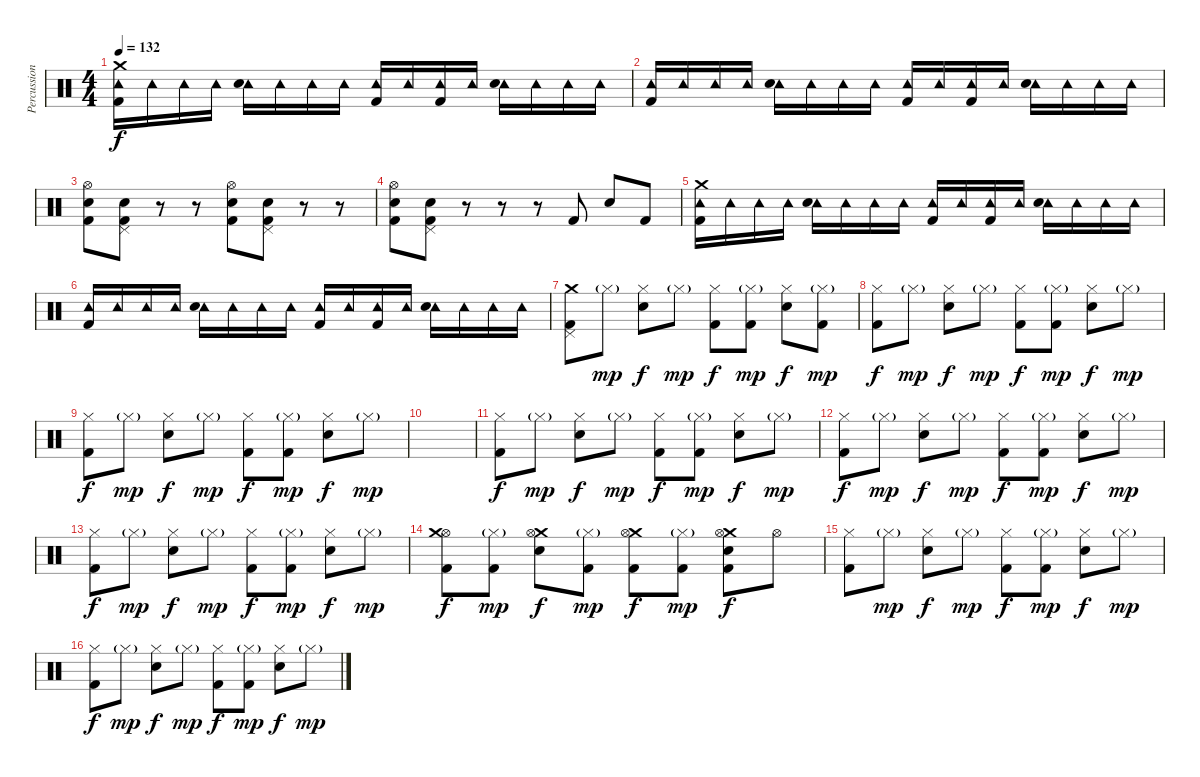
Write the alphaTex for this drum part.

\track ("Percussion" "Percussion") {instrument percussion}
\staff {score}
\articulation defaults
\ts (4 4)
\tempo 132
\clef neutral
\ks c
("Crash medium (hit)" "Tambourine (hit)" "Kick (hit) 2").16{dy f} "Tambourine (hit)".16 "Tambourine (hit)".16 "Tambourine (hit)".16 ("Tambourine (hit)" "Snare (hit) 2").16 "Tambourine (hit)".16 "Tambourine (hit)".16 "Tambourine (hit)".16 ("Tambourine (hit)" "Kick (hit) 2").16 "Tambourine (hit)".16 ("Tambourine (hit)" "Kick (hit) 2").16 "Tambourine (hit)".16 ("Tambourine (hit)" "Snare (hit) 2").16 "Tambourine (hit)".16 "Tambourine (hit)".16 "Tambourine (hit)".16 |
("Tambourine (hit)" "Kick (hit) 2").16 "Tambourine (hit)".16 "Tambourine (hit)".16 "Tambourine (hit)".16 ("Tambourine (hit)" "Snare (hit) 2").16 "Tambourine (hit)".16 "Tambourine (hit)".16 "Tambourine (hit)".16 ("Tambourine (hit)" "Kick (hit) 2").16 "Tambourine (hit)".16 ("Tambourine (hit)" "Kick (hit) 2").16 "Tambourine (hit)".16 ("Tambourine (hit)" "Snare (hit) 2").16 "Tambourine (hit)".16 "Tambourine (hit)".16 "Tambourine (hit)".16 |
("Hi-Hat (open)" "Snare (hit) 2" "Kick (hit) 2").8 ("Pedal Hi-Hat (hit)" "Snare (hit) 2" "Kick (hit) 2").8 r.8 r.8 ("Hi-Hat (open)" "Snare (hit) 2" "Kick (hit) 2").8 ("Pedal Hi-Hat (hit)" "Snare (hit) 2" "Kick (hit) 2").8 r.8 r.8 |
("Hi-Hat (open)" "Snare (hit) 2" "Kick (hit) 2").8 ("Pedal Hi-Hat (hit)" "Snare (hit) 2" "Kick (hit) 2").8 r.8 r.8 r.8 "Kick (hit) 2".8 "Snare (hit) 2".8 "Kick (hit) 2".8 |
("Crash medium (hit)" "Tambourine (hit)" "Kick (hit) 2").16 "Tambourine (hit)".16 "Tambourine (hit)".16 "Tambourine (hit)".16 ("Tambourine (hit)" "Snare (hit) 2").16 "Tambourine (hit)".16 "Tambourine (hit)".16 "Tambourine (hit)".16 ("Tambourine (hit)" "Kick (hit) 2").16 "Tambourine (hit)".16 ("Tambourine (hit)" "Kick (hit) 2").16 "Tambourine (hit)".16 ("Tambourine (hit)" "Snare (hit) 2").16 "Tambourine (hit)".16 "Tambourine (hit)".16 "Tambourine (hit)".16 |
("Tambourine (hit)" "Kick (hit) 2").16 "Tambourine (hit)".16 "Tambourine (hit)".16 "Tambourine (hit)".16 ("Tambourine (hit)" "Snare (hit) 2").16 "Tambourine (hit)".16 "Tambourine (hit)".16 "Tambourine (hit)".16 ("Tambourine (hit)" "Kick (hit) 2").16 "Tambourine (hit)".16 ("Tambourine (hit)" "Kick (hit) 2").16 "Tambourine (hit)".16 ("Tambourine (hit)" "Snare (hit) 2").16 "Tambourine (hit)".16 "Tambourine (hit)".16 "Tambourine (hit)".16 |
("Crash medium (hit)" "Pedal Hi-Hat (hit)" "Kick (hit) 2").8 "Hi-Hat (closed)"{g}.8{dy mp} ("Hi-Hat (closed)" "Snare (hit) 2").8{dy f} "Hi-Hat (closed)"{g}.8{dy mp} ("Hi-Hat (closed)" "Kick (hit) 2").8{dy f} ("Hi-Hat (closed)"{g} "Kick (hit) 2").8{dy mp} ("Hi-Hat (closed)" "Snare (hit) 2").8{dy f} ("Hi-Hat (closed)"{g} "Kick (hit) 2").8{dy mp} |
("Hi-Hat (closed)" "Kick (hit) 2").8{dy f} "Hi-Hat (closed)"{g}.8{dy mp} ("Hi-Hat (closed)" "Snare (hit) 2").8{dy f} "Hi-Hat (closed)"{g}.8{dy mp} ("Hi-Hat (closed)" "Kick (hit) 2").8{dy f} ("Hi-Hat (closed)"{g} "Kick (hit) 2").8{dy mp} ("Hi-Hat (closed)" "Snare (hit) 2").8{dy f} "Hi-Hat (closed)"{g}.8{dy mp} |
("Hi-Hat (closed)" "Kick (hit) 2").8{dy f} "Hi-Hat (closed)"{g}.8{dy mp} ("Hi-Hat (closed)" "Snare (hit) 2").8{dy f} "Hi-Hat (closed)"{g}.8{dy mp} ("Hi-Hat (closed)" "Kick (hit) 2").8{dy f} ("Hi-Hat (closed)"{g} "Kick (hit) 2").8{dy mp} ("Hi-Hat (closed)" "Snare (hit) 2").8{dy f} "Hi-Hat (closed)"{g}.8{dy mp} |
|
("Hi-Hat (closed)" "Kick (hit) 2").8{dy f} "Hi-Hat (closed)"{g}.8{dy mp} ("Hi-Hat (closed)" "Snare (hit) 2").8{dy f} "Hi-Hat (closed)"{g}.8{dy mp} ("Hi-Hat (closed)" "Kick (hit) 2").8{dy f} ("Hi-Hat (closed)"{g} "Kick (hit) 2").8{dy mp} ("Hi-Hat (closed)" "Snare (hit) 2").8{dy f} "Hi-Hat (closed)"{g}.8{dy mp} |
("Hi-Hat (closed)" "Kick (hit) 2").8{dy f} "Hi-Hat (closed)"{g}.8{dy mp} ("Hi-Hat (closed)" "Snare (hit) 2").8{dy f} "Hi-Hat (closed)"{g}.8{dy mp} ("Hi-Hat (closed)" "Kick (hit) 2").8{dy f} ("Hi-Hat (closed)"{g} "Kick (hit) 2").8{dy mp} ("Hi-Hat (closed)" "Snare (hit) 2").8{dy f} "Hi-Hat (closed)"{g}.8{dy mp} |
("Hi-Hat (closed)" "Kick (hit) 2").8{dy f} "Hi-Hat (closed)"{g}.8{dy mp} ("Hi-Hat (closed)" "Snare (hit) 2").8{dy f} "Hi-Hat (closed)"{g}.8{dy mp} ("Hi-Hat (closed)" "Kick (hit) 2").8{dy f} ("Hi-Hat (closed)"{g} "Kick (hit) 2").8{dy mp} ("Hi-Hat (closed)" "Snare (hit) 2").8{dy f} "Hi-Hat (closed)"{g}.8{dy mp} |
("Hi-Hat (open)" "Crash medium (hit)" "Kick (hit) 2").8{dy f} ("Hi-Hat (closed)"{g} "Kick (hit) 2").8{dy mp} ("Crash medium (hit)" "Hi-Hat (open)" "Snare (hit) 2").8{dy f} ("Hi-Hat (closed)"{g} "Kick (hit) 2").8{dy mp} ("Crash medium (hit)" "Hi-Hat (open)" "Kick (hit) 2").8{dy f} ("Hi-Hat (closed)"{g} "Kick (hit) 2").8{dy mp} ("Crash medium (hit)" "Hi-Hat (open)" "Snare (hit) 2" "Kick (hit) 2").8{dy f} "Hi-Hat (open)".8 |
("Hi-Hat (closed)" "Kick (hit) 2").8 "Hi-Hat (closed)"{g}.8{dy mp} ("Hi-Hat (closed)" "Snare (hit) 2").8{dy f} "Hi-Hat (closed)"{g}.8{dy mp} ("Hi-Hat (closed)" "Kick (hit) 2").8{dy f} ("Hi-Hat (closed)"{g} "Kick (hit) 2").8{dy mp} ("Hi-Hat (closed)" "Snare (hit) 2").8{dy f} "Hi-Hat (closed)"{g}.8{dy mp} |
("Hi-Hat (closed)" "Kick (hit) 2").8{dy f} "Hi-Hat (closed)"{g}.8{dy mp} ("Hi-Hat (closed)" "Snare (hit) 2").8{dy f} "Hi-Hat (closed)"{g}.8{dy mp} ("Hi-Hat (closed)" "Kick (hit) 2").8{dy f} ("Hi-Hat (closed)"{g} "Kick (hit) 2").8{dy mp} ("Hi-Hat (closed)" "Snare (hit) 2").8{dy f} "Hi-Hat (closed)"{g}.8{dy mp}
